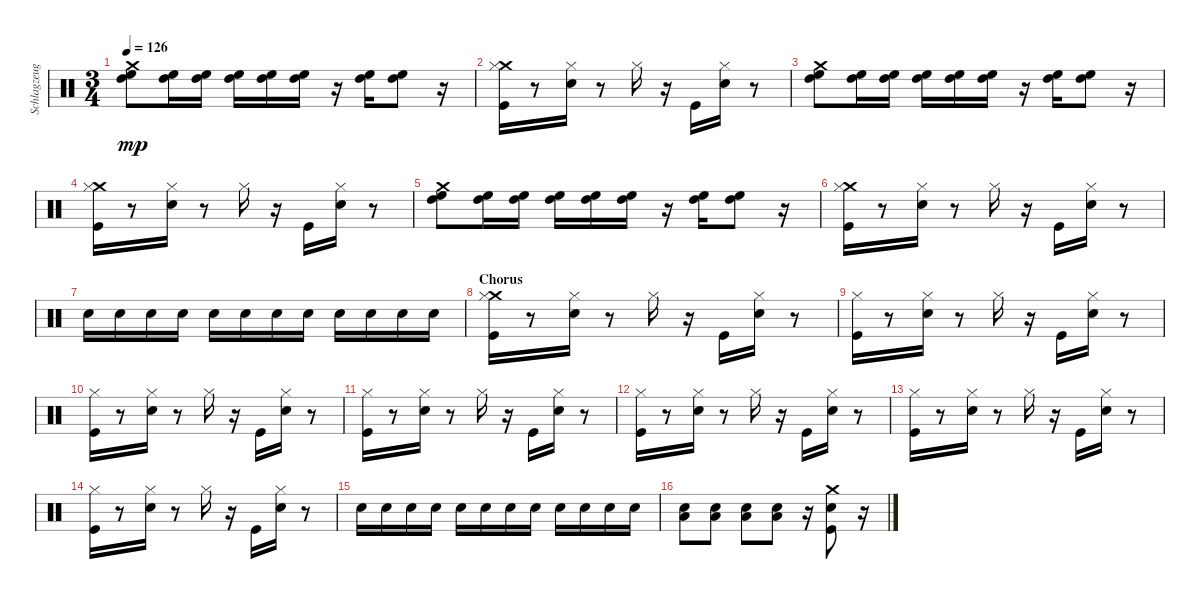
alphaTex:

\track ("Schlagzeug - Bela B." "Schlagzeug") {instrument percussion}
\staff {score}
\articulation defaults
\ts (3 4)
\tempo 126
\clef neutral
\ks c
("High Floor Tom (hit)" "High Tom (hit)" "Crash medium (hit)").8{dy mp} ("High Floor Tom (hit)" "High Tom (hit)").16 ("High Floor Tom (hit)" "High Tom (hit)").16 ("High Floor Tom (hit)" "High Tom (hit)").16 ("High Floor Tom (hit)" "High Tom (hit)").16 ("High Floor Tom (hit)" "High Tom (hit)").16 r.16 ("High Floor Tom (hit)" "High Tom (hit)").16 ("High Floor Tom (hit)" "High Tom (hit)").8 r.16 |
("Kick (hit)" "Crash medium (hit)" "Hi-Hat (closed)").16 r.8 ("Electric Snare (hit)" "Hi-Hat (closed)").16 r.8 "Hi-Hat (closed)".16 r.16 "Kick (hit)".16 ("Electric Snare (hit)" "Hi-Hat (closed)").16 r.8 |
("High Floor Tom (hit)" "High Tom (hit)" "Crash medium (hit)").8 ("High Floor Tom (hit)" "High Tom (hit)").16 ("High Floor Tom (hit)" "High Tom (hit)").16 ("High Floor Tom (hit)" "High Tom (hit)").16 ("High Floor Tom (hit)" "High Tom (hit)").16 ("High Floor Tom (hit)" "High Tom (hit)").16 r.16 ("High Floor Tom (hit)" "High Tom (hit)").16 ("High Floor Tom (hit)" "High Tom (hit)").8 r.16 |
("Kick (hit)" "Crash medium (hit)" "Hi-Hat (closed)").16 r.8 ("Electric Snare (hit)" "Hi-Hat (closed)").16 r.8 "Hi-Hat (closed)".16 r.16 "Kick (hit)".16 ("Electric Snare (hit)" "Hi-Hat (closed)").16 r.8 |
("High Floor Tom (hit)" "High Tom (hit)" "Crash medium (hit)").8 ("High Floor Tom (hit)" "High Tom (hit)").16 ("High Floor Tom (hit)" "High Tom (hit)").16 ("High Floor Tom (hit)" "High Tom (hit)").16 ("High Floor Tom (hit)" "High Tom (hit)").16 ("High Floor Tom (hit)" "High Tom (hit)").16 r.16 ("High Floor Tom (hit)" "High Tom (hit)").16 ("High Floor Tom (hit)" "High Tom (hit)").8 r.16 |
("Kick (hit)" "Crash medium (hit)" "Hi-Hat (closed)").16 r.8 ("Electric Snare (hit)" "Hi-Hat (closed)").16 r.8 "Hi-Hat (closed)".16 r.16 "Kick (hit)".16 ("Electric Snare (hit)" "Hi-Hat (closed)").16 r.8 |
"Electric Snare (hit)".16 "Electric Snare (hit)".16 "Electric Snare (hit)".16 "Electric Snare (hit)".16 "Electric Snare (hit)".16 "Electric Snare (hit)".16 "Electric Snare (hit)".16 "Electric Snare (hit)".16 "Electric Snare (hit)".16 "Electric Snare (hit)".16 "Electric Snare (hit)".16 "Electric Snare (hit)".16 |
\section ("" "Chorus")
("Kick (hit)" "Crash medium (hit)" "Hi-Hat (closed)").16 r.8 ("Electric Snare (hit)" "Hi-Hat (closed)").16 r.8 "Hi-Hat (closed)".16 r.16 "Kick (hit)".16 ("Electric Snare (hit)" "Hi-Hat (closed)").16 r.8 |
("Kick (hit)" "Hi-Hat (closed)").16 r.8 ("Electric Snare (hit)" "Hi-Hat (closed)").16 r.8 "Hi-Hat (closed)".16 r.16 "Kick (hit)".16 ("Electric Snare (hit)" "Hi-Hat (closed)").16 r.8 |
("Kick (hit)" "Hi-Hat (closed)").16 r.8 ("Electric Snare (hit)" "Hi-Hat (closed)").16 r.8 "Hi-Hat (closed)".16 r.16 "Kick (hit)".16 ("Electric Snare (hit)" "Hi-Hat (closed)").16 r.8 |
("Kick (hit)" "Hi-Hat (closed)").16 r.8 ("Electric Snare (hit)" "Hi-Hat (closed)").16 r.8 "Hi-Hat (closed)".16 r.16 "Kick (hit)".16 ("Electric Snare (hit)" "Hi-Hat (closed)").16 r.8 |
("Kick (hit)" "Hi-Hat (closed)").16 r.8 ("Electric Snare (hit)" "Hi-Hat (closed)").16 r.8 "Hi-Hat (closed)".16 r.16 "Kick (hit)".16 ("Electric Snare (hit)" "Hi-Hat (closed)").16 r.8 |
("Kick (hit)" "Hi-Hat (closed)").16 r.8 ("Electric Snare (hit)" "Hi-Hat (closed)").16 r.8 "Hi-Hat (closed)".16 r.16 "Kick (hit)".16 ("Electric Snare (hit)" "Hi-Hat (closed)").16 r.8 |
("Kick (hit)" "Hi-Hat (closed)").16 r.8 ("Electric Snare (hit)" "Hi-Hat (closed)").16 r.8 "Hi-Hat (closed)".16 r.16 "Kick (hit)".16 ("Electric Snare (hit)" "Hi-Hat (closed)").16 r.8 |
"Electric Snare (hit)".16 "Electric Snare (hit)".16 "Electric Snare (hit)".16 "Electric Snare (hit)".16 "Electric Snare (hit)".16 "Electric Snare (hit)".16 "Electric Snare (hit)".16 "Electric Snare (hit)".16 "Electric Snare (hit)".16 "Electric Snare (hit)".16 "Electric Snare (hit)".16 "Electric Snare (hit)".16 |
("Electric Snare (hit)" "Low Floor Tom (hit)").8 ("Electric Snare (hit)" "Low Floor Tom (hit)").8 ("Electric Snare (hit)" "Low Floor Tom (hit)").8 ("Electric Snare (hit)" "Low Floor Tom (hit)").8 r.16 ("Electric Snare (hit)" "Crash medium (hit)" "Kick (hit)").8 r.16
